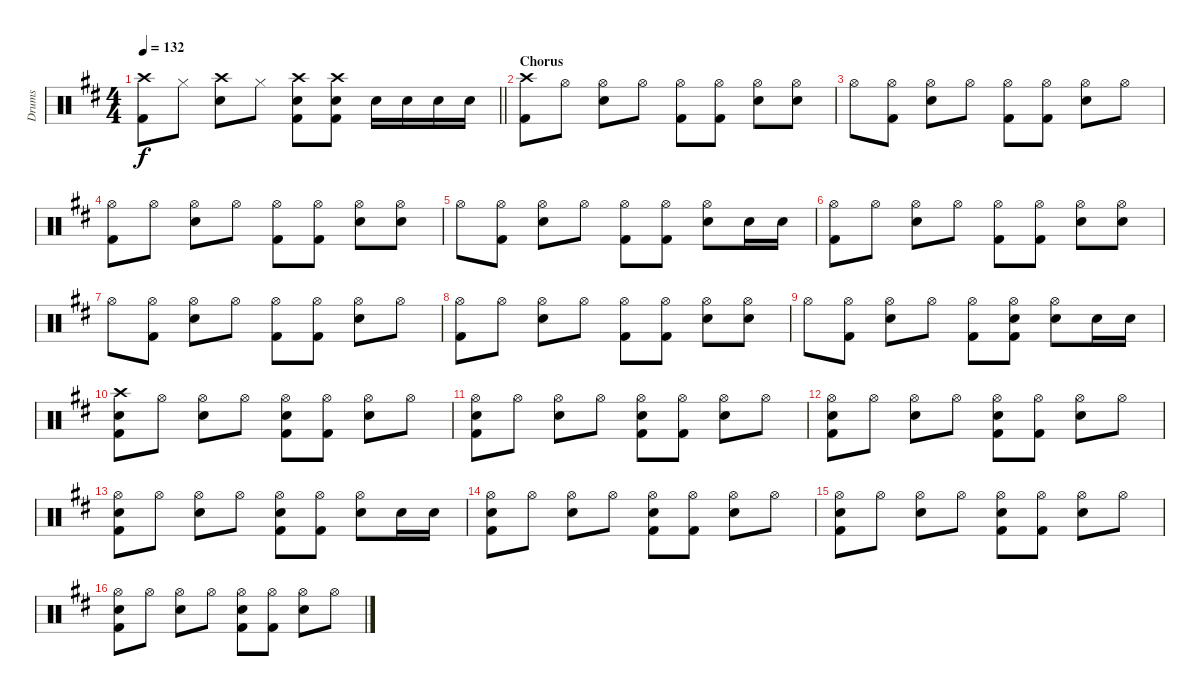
\track ("Drums" "Drums") {instrument percussion}
\staff {score}
\articulation defaults
\ts (4 4)
\tempo 132
\clef neutral
\barLineRight lightlight
\ks d
("Crash high (hit)" "Kick (hit) 2").8{dy f} "Hi-Hat (closed)".8 ("Crash high (hit)" "Electric Snare (hit)").8 "Hi-Hat (closed)".8 ("Crash high (hit)" "Electric Snare (hit)" "Kick (hit) 2").8 ("Crash high (hit)" "Electric Snare (hit)" "Kick (hit) 2").8 "Electric Snare (hit)".16 "Electric Snare (hit)".16 "Electric Snare (hit)".16 "Electric Snare (hit)".16 |
\section ("" "Chorus")
("Crash high (hit)" "Kick (hit) 2").8 "Hi-Hat (open)".8 ("Hi-Hat (open)" "Electric Snare (hit)").8 "Hi-Hat (open)".8 ("Hi-Hat (open)" "Kick (hit) 2").8 ("Hi-Hat (open)" "Kick (hit) 2").8 ("Hi-Hat (open)" "Electric Snare (hit)").8 ("Hi-Hat (open)" "Electric Snare (hit)").8 |
"Hi-Hat (open)".8 ("Hi-Hat (open)" "Kick (hit) 2").8 ("Hi-Hat (open)" "Electric Snare (hit)").8 "Hi-Hat (open)".8 ("Hi-Hat (open)" "Kick (hit) 2").8 ("Hi-Hat (open)" "Kick (hit) 2").8 ("Hi-Hat (open)" "Electric Snare (hit)").8 "Hi-Hat (open)".8 |
("Hi-Hat (open)" "Kick (hit) 2").8 "Hi-Hat (open)".8 ("Hi-Hat (open)" "Electric Snare (hit)").8 "Hi-Hat (open)".8 ("Hi-Hat (open)" "Kick (hit) 2").8 ("Hi-Hat (open)" "Kick (hit) 2").8 ("Hi-Hat (open)" "Electric Snare (hit)").8 ("Hi-Hat (open)" "Electric Snare (hit)").8 |
"Hi-Hat (open)".8 ("Hi-Hat (open)" "Kick (hit) 2").8 ("Hi-Hat (open)" "Electric Snare (hit)").8 "Hi-Hat (open)".8 ("Hi-Hat (open)" "Kick (hit) 2").8 ("Hi-Hat (open)" "Kick (hit) 2").8 ("Hi-Hat (open)" "Electric Snare (hit)").8 "Electric Snare (hit)".16 "Electric Snare (hit)".16 |
("Hi-Hat (open)" "Kick (hit) 2").8 "Hi-Hat (open)".8 ("Hi-Hat (open)" "Electric Snare (hit)").8 "Hi-Hat (open)".8 ("Hi-Hat (open)" "Kick (hit) 2").8 ("Hi-Hat (open)" "Kick (hit) 2").8 ("Hi-Hat (open)" "Electric Snare (hit)").8 ("Hi-Hat (open)" "Electric Snare (hit)").8 |
"Hi-Hat (open)".8 ("Hi-Hat (open)" "Kick (hit) 2").8 ("Hi-Hat (open)" "Electric Snare (hit)").8 "Hi-Hat (open)".8 ("Hi-Hat (open)" "Kick (hit) 2").8 ("Hi-Hat (open)" "Kick (hit) 2").8 ("Hi-Hat (open)" "Electric Snare (hit)").8 "Hi-Hat (open)".8 |
("Hi-Hat (open)" "Kick (hit) 2").8 "Hi-Hat (open)".8 ("Hi-Hat (open)" "Electric Snare (hit)").8 "Hi-Hat (open)".8 ("Hi-Hat (open)" "Kick (hit) 2").8 ("Hi-Hat (open)" "Kick (hit) 2").8 ("Hi-Hat (open)" "Electric Snare (hit)").8 ("Hi-Hat (open)" "Electric Snare (hit)").8 |
"Hi-Hat (open)".8 ("Hi-Hat (open)" "Kick (hit) 2").8 ("Hi-Hat (open)" "Electric Snare (hit)").8 "Hi-Hat (open)".8 ("Hi-Hat (open)" "Kick (hit) 2").8 ("Hi-Hat (open)" "Electric Snare (hit)" "Kick (hit) 2").8 ("Hi-Hat (open)" "Electric Snare (hit)").8 "Electric Snare (hit)".16 "Electric Snare (hit)".16 |
("Crash high (hit)" "Electric Snare (hit)" "Kick (hit) 2").8 "Hi-Hat (open)".8 ("Hi-Hat (open)" "Electric Snare (hit)").8 "Hi-Hat (open)".8 ("Hi-Hat (open)" "Electric Snare (hit)" "Kick (hit) 2").8 ("Hi-Hat (open)" "Kick (hit) 2").8 ("Hi-Hat (open)" "Electric Snare (hit)").8 "Hi-Hat (open)".8 |
("Hi-Hat (open)" "Electric Snare (hit)" "Kick (hit) 2").8 "Hi-Hat (open)".8 ("Hi-Hat (open)" "Electric Snare (hit)").8 "Hi-Hat (open)".8 ("Hi-Hat (open)" "Electric Snare (hit)" "Kick (hit) 2").8 ("Hi-Hat (open)" "Kick (hit) 2").8 ("Hi-Hat (open)" "Electric Snare (hit)").8 "Hi-Hat (open)".8 |
("Hi-Hat (open)" "Electric Snare (hit)" "Kick (hit) 2").8 "Hi-Hat (open)".8 ("Hi-Hat (open)" "Electric Snare (hit)").8 "Hi-Hat (open)".8 ("Hi-Hat (open)" "Electric Snare (hit)" "Kick (hit) 2").8 ("Hi-Hat (open)" "Kick (hit) 2").8 ("Hi-Hat (open)" "Electric Snare (hit)").8 "Hi-Hat (open)".8 |
("Hi-Hat (open)" "Electric Snare (hit)" "Kick (hit) 2").8 "Hi-Hat (open)".8 ("Hi-Hat (open)" "Electric Snare (hit)").8 "Hi-Hat (open)".8 ("Hi-Hat (open)" "Electric Snare (hit)" "Kick (hit) 2").8 ("Hi-Hat (open)" "Kick (hit) 2").8 ("Hi-Hat (open)" "Electric Snare (hit)").8 "Electric Snare (hit)".16 "Electric Snare (hit)".16 |
("Hi-Hat (open)" "Electric Snare (hit)" "Kick (hit) 2").8 "Hi-Hat (open)".8 ("Hi-Hat (open)" "Electric Snare (hit)").8 "Hi-Hat (open)".8 ("Hi-Hat (open)" "Electric Snare (hit)" "Kick (hit) 2").8 ("Hi-Hat (open)" "Kick (hit) 2").8 ("Hi-Hat (open)" "Electric Snare (hit)").8 "Hi-Hat (open)".8 |
("Hi-Hat (open)" "Electric Snare (hit)" "Kick (hit) 2").8 "Hi-Hat (open)".8 ("Hi-Hat (open)" "Electric Snare (hit)").8 "Hi-Hat (open)".8 ("Hi-Hat (open)" "Electric Snare (hit)" "Kick (hit) 2").8 ("Hi-Hat (open)" "Kick (hit) 2").8 ("Hi-Hat (open)" "Electric Snare (hit)").8 "Hi-Hat (open)".8 |
("Hi-Hat (open)" "Electric Snare (hit)" "Kick (hit) 2").8 "Hi-Hat (open)".8 ("Hi-Hat (open)" "Electric Snare (hit)").8 "Hi-Hat (open)".8 ("Hi-Hat (open)" "Electric Snare (hit)" "Kick (hit) 2").8 ("Hi-Hat (open)" "Kick (hit) 2").8 ("Hi-Hat (open)" "Electric Snare (hit)").8 "Hi-Hat (open)".8
